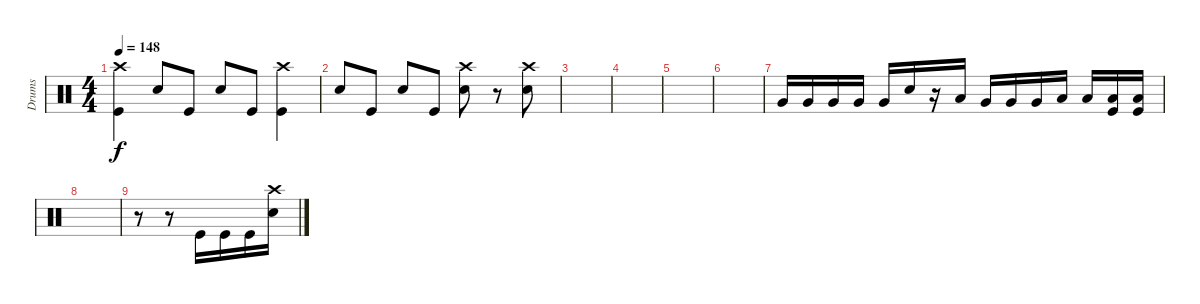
\track ("Drums" "Drums") {instrument percussion}
\staff {score}
\articulation defaults
\ts (4 4)
\tempo 148
\clef neutral
\ks c
("Crash high (hit)" "Kick (hit)").4{dy f} "Electric Snare (hit)".8 "Kick (hit)".8 "Electric Snare (hit)".8 "Kick (hit)".8 ("Crash high (hit)" "Kick (hit)").4 |
"Electric Snare (hit)".8 "Kick (hit)".8 "Electric Snare (hit)".8 "Kick (hit)".8 ("Crash high (hit)" "Electric Snare (hit)").8 r.8 ("Crash high (hit)" "Electric Snare (hit)").8 |
|
|
|
|
"Very Low Tom (hit)".16 "Very Low Tom (hit)".16 "Very Low Tom (hit)".16 "Very Low Tom (hit)".16 "Very Low Tom (hit)".16 "Electric Snare (hit)".16 r.16 "Low Tom (hit)".16 "Very Low Tom (hit)".16 "Very Low Tom (hit)".16 "Very Low Tom (hit)".16 "Low Floor Tom (hit)".16 "Low Floor Tom (hit)".16 ("Low Floor Tom (hit)" "Kick (hit)").16 ("Low Floor Tom (hit)" "Kick (hit)").16 |
|
r.8 r.8 "Kick (hit)".16 "Kick (hit)".16 "Kick (hit)".16 ("Crash high (hit)" "Electric Snare (hit)").16
